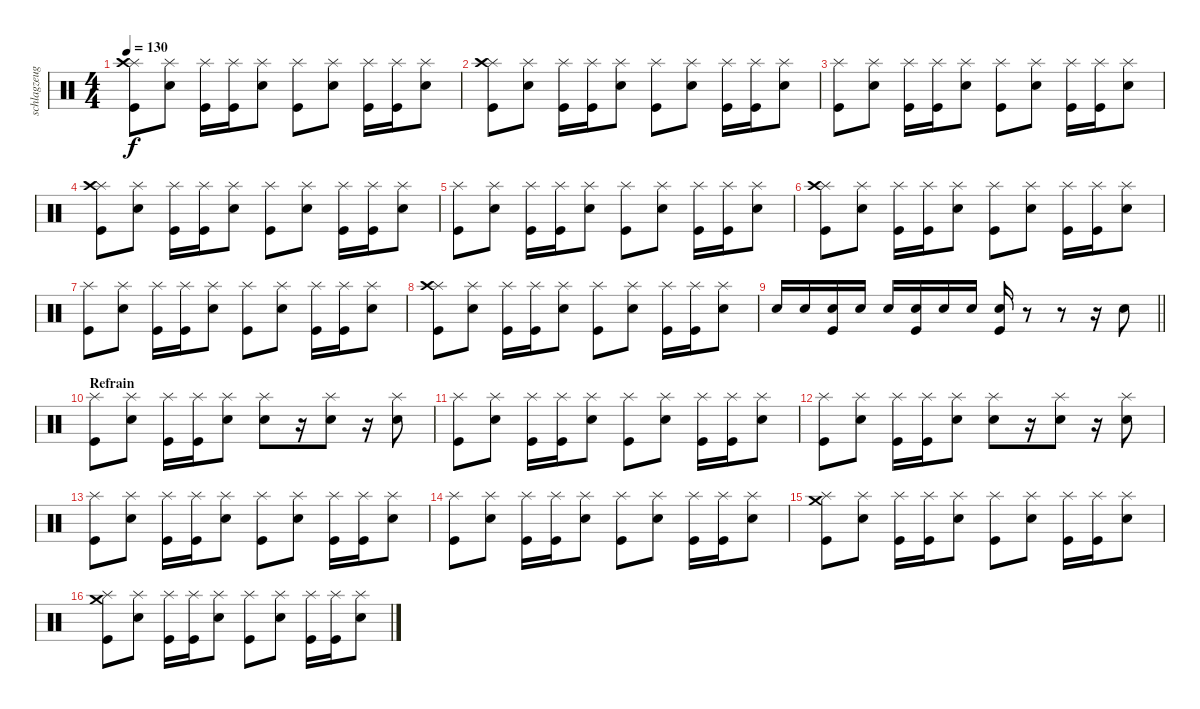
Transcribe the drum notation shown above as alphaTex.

\track ("schlagzeug" "schlagzeug") {instrument percussion}
\staff {score}
\articulation defaults
\ts (4 4)
\tempo 130
\clef neutral
\ks c
("Kick (hit)" "Splash (hit)" "Crash high (hit)").8{dy f} ("Snare (hit) 2" "Splash (hit)").8 ("Kick (hit)" "Splash (hit)").16 ("Kick (hit)" "Splash (hit)").16 ("Snare (hit) 2" "Splash (hit)").8 ("Kick (hit)" "Splash (hit)").8 ("Snare (hit) 2" "Splash (hit)").8 ("Kick (hit)" "Splash (hit)").16 ("Kick (hit)" "Splash (hit)").16 ("Snare (hit) 2" "Splash (hit)").8 |
("Kick (hit)" "Splash (hit)" "Crash high (hit)").8 ("Snare (hit) 2" "Splash (hit)").8 ("Kick (hit)" "Splash (hit)").16 ("Kick (hit)" "Splash (hit)").16 ("Snare (hit) 2" "Splash (hit)").8 ("Kick (hit)" "Splash (hit)").8 ("Snare (hit) 2" "Splash (hit)").8 ("Kick (hit)" "Splash (hit)").16 ("Kick (hit)" "Splash (hit)").16 ("Snare (hit) 2" "Splash (hit)").8 |
("Kick (hit)" "Splash (hit)").8 ("Snare (hit) 2" "Splash (hit)").8 ("Kick (hit)" "Splash (hit)").16 ("Kick (hit)" "Splash (hit)").16 ("Snare (hit) 2" "Splash (hit)").8 ("Kick (hit)" "Splash (hit)").8 ("Snare (hit) 2" "Splash (hit)").8 ("Kick (hit)" "Splash (hit)").16 ("Kick (hit)" "Splash (hit)").16 ("Snare (hit) 2" "Splash (hit)").8 |
("Kick (hit)" "Splash (hit)" "Crash high (hit)").8 ("Snare (hit) 2" "Splash (hit)").8 ("Kick (hit)" "Splash (hit)").16 ("Kick (hit)" "Splash (hit)").16 ("Snare (hit) 2" "Splash (hit)").8 ("Kick (hit)" "Splash (hit)").8 ("Snare (hit) 2" "Splash (hit)").8 ("Kick (hit)" "Splash (hit)").16 ("Kick (hit)" "Splash (hit)").16 ("Snare (hit) 2" "Splash (hit)").8 |
("Kick (hit)" "Splash (hit)").8 ("Snare (hit) 2" "Splash (hit)").8 ("Kick (hit)" "Splash (hit)").16 ("Kick (hit)" "Splash (hit)").16 ("Snare (hit) 2" "Splash (hit)").8 ("Kick (hit)" "Splash (hit)").8 ("Snare (hit) 2" "Splash (hit)").8 ("Kick (hit)" "Splash (hit)").16 ("Kick (hit)" "Splash (hit)").16 ("Snare (hit) 2" "Splash (hit)").8 |
("Kick (hit)" "Splash (hit)" "Crash high (hit)").8 ("Snare (hit) 2" "Splash (hit)").8 ("Kick (hit)" "Splash (hit)").16 ("Kick (hit)" "Splash (hit)").16 ("Snare (hit) 2" "Splash (hit)").8 ("Kick (hit)" "Splash (hit)").8 ("Snare (hit) 2" "Splash (hit)").8 ("Kick (hit)" "Splash (hit)").16 ("Kick (hit)" "Splash (hit)").16 ("Snare (hit) 2" "Splash (hit)").8 |
("Kick (hit)" "Splash (hit)").8 ("Snare (hit) 2" "Splash (hit)").8 ("Kick (hit)" "Splash (hit)").16 ("Kick (hit)" "Splash (hit)").16 ("Snare (hit) 2" "Splash (hit)").8 ("Kick (hit)" "Splash (hit)").8 ("Snare (hit) 2" "Splash (hit)").8 ("Kick (hit)" "Splash (hit)").16 ("Kick (hit)" "Splash (hit)").16 ("Snare (hit) 2" "Splash (hit)").8 |
("Kick (hit)" "Splash (hit)" "Crash high (hit)").8 ("Snare (hit) 2" "Splash (hit)").8 ("Kick (hit)" "Splash (hit)").16 ("Kick (hit)" "Splash (hit)").16 ("Snare (hit) 2" "Splash (hit)").8 ("Kick (hit)" "Splash (hit)").8 ("Snare (hit) 2" "Splash (hit)").8 ("Kick (hit)" "Splash (hit)").16 ("Kick (hit)" "Splash (hit)").16 ("Snare (hit) 2" "Splash (hit)").8 |
\barLineRight lightlight "Snare (hit) 2".16 "Snare (hit) 2".16
("Snare (hit) 2" "Kick (hit)").16 "Snare (hit) 2".16 "Snare (hit) 2".16 ("Snare (hit) 2" "Kick (hit)").16 "Snare (hit) 2".16 "Snare (hit) 2".16 ("Snare (hit) 2" "Kick (hit)").16 r.8 r.8 r.16 "Snare (hit) 2".8 |
\section ("" "Refrain")
("Kick (hit)" "Splash (hit)").8 ("Snare (hit) 2" "Splash (hit)").8 ("Kick (hit)" "Splash (hit)").16 ("Kick (hit)" "Splash (hit)").16 ("Snare (hit) 2" "Splash (hit)").8 ("Snare (hit) 2" "Splash (hit)").8 r.16 ("Snare (hit) 2" "Splash (hit)").8 r.16 ("Snare (hit) 2" "Splash (hit)").8 |
("Kick (hit)" "Splash (hit)").8 ("Snare (hit) 2" "Splash (hit)").8 ("Kick (hit)" "Splash (hit)").16 ("Kick (hit)" "Splash (hit)").16 ("Snare (hit) 2" "Splash (hit)").8 ("Kick (hit)" "Splash (hit)").8 ("Snare (hit) 2" "Splash (hit)").8 ("Kick (hit)" "Splash (hit)").16 ("Kick (hit)" "Splash (hit)").16 ("Snare (hit) 2" "Splash (hit)").8 |
("Kick (hit)" "Splash (hit)").8 ("Snare (hit) 2" "Splash (hit)").8 ("Kick (hit)" "Splash (hit)").16 ("Kick (hit)" "Splash (hit)").16 ("Snare (hit) 2" "Splash (hit)").8 ("Snare (hit) 2" "Splash (hit)").8 r.16 ("Snare (hit) 2" "Splash (hit)").8 r.16 ("Snare (hit) 2" "Splash (hit)").8 |
("Kick (hit)" "Splash (hit)").8 ("Snare (hit) 2" "Splash (hit)").8 ("Kick (hit)" "Splash (hit)").16 ("Kick (hit)" "Splash (hit)").16 ("Snare (hit) 2" "Splash (hit)").8 ("Kick (hit)" "Splash (hit)").8 ("Snare (hit) 2" "Splash (hit)").8 ("Kick (hit)" "Splash (hit)").16 ("Kick (hit)" "Splash (hit)").16 ("Snare (hit) 2" "Splash (hit)").8 |
("Kick (hit)" "Splash (hit)").8 ("Snare (hit) 2" "Splash (hit)").8 ("Kick (hit)" "Splash (hit)").16 ("Kick (hit)" "Splash (hit)").16 ("Snare (hit) 2" "Splash (hit)").8 ("Kick (hit)" "Splash (hit)").8 ("Snare (hit) 2" "Splash (hit)").8 ("Kick (hit)" "Splash (hit)").16 ("Kick (hit)" "Splash (hit)").16 ("Snare (hit) 2" "Splash (hit)").8 |
("Kick (hit)" "Splash (hit)" "Crash medium (hit)").8 ("Snare (hit) 2" "Splash (hit)").8 ("Kick (hit)" "Splash (hit)").16 ("Kick (hit)" "Splash (hit)").16 ("Snare (hit) 2" "Splash (hit)").8 ("Kick (hit)" "Splash (hit)").8 ("Snare (hit) 2" "Splash (hit)").8 ("Kick (hit)" "Splash (hit)").16 ("Kick (hit)" "Splash (hit)").16 ("Snare (hit) 2" "Splash (hit)").8 |
("Kick (hit)" "Splash (hit)" "Crash medium (hit)").8 ("Snare (hit) 2" "Splash (hit)").8 ("Kick (hit)" "Splash (hit)").16 ("Kick (hit)" "Splash (hit)").16 ("Snare (hit) 2" "Splash (hit)").8 ("Kick (hit)" "Splash (hit)").8 ("Snare (hit) 2" "Splash (hit)").8 ("Kick (hit)" "Splash (hit)").16 ("Kick (hit)" "Splash (hit)").16 ("Snare (hit) 2" "Splash (hit)").8
